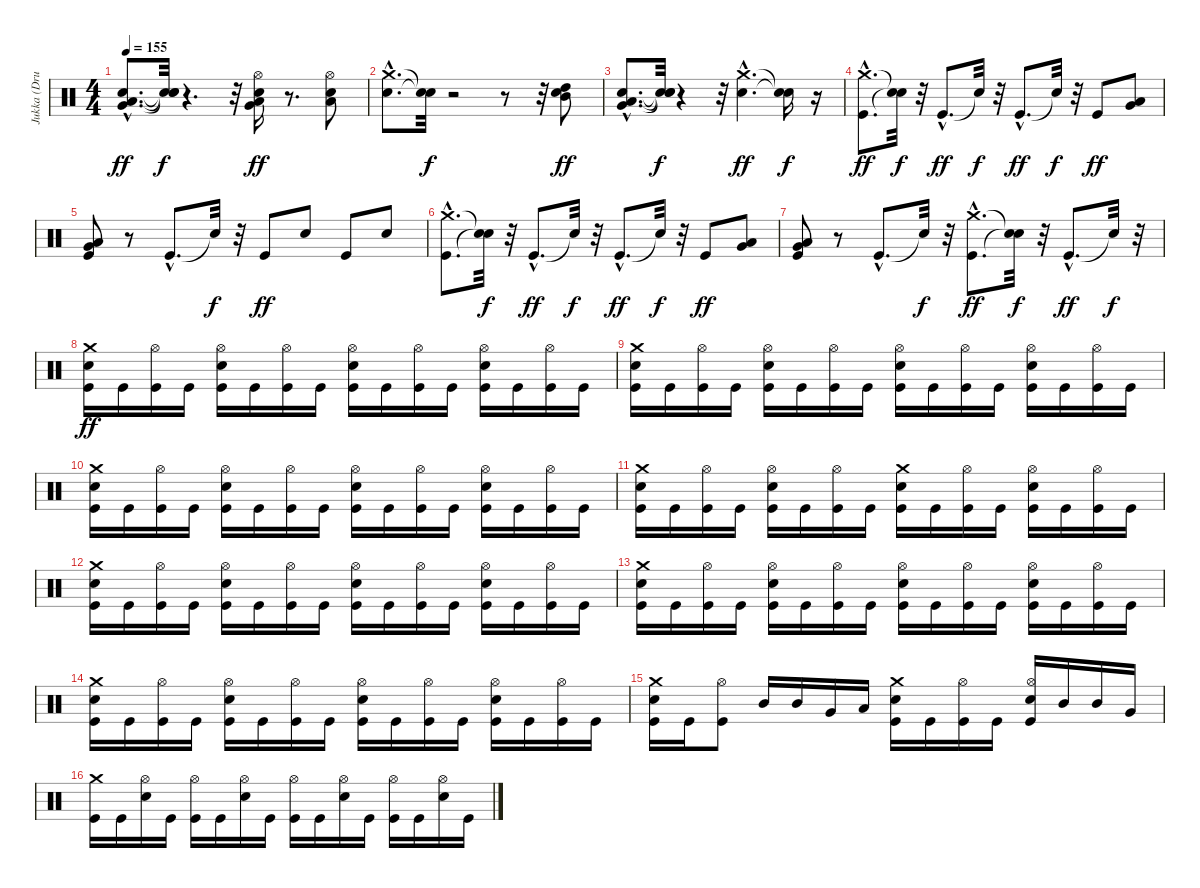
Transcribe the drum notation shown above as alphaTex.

\track ("Jukka (Drums)" "Jukka (Dru") {instrument percussion}
\staff {score}
\articulation defaults
\ts (4 4)
\tempo 155
\clef neutral
\ks c
("Electric Snare (hit)"{hac} "Low Floor Tom (hit)"{hac} "Very Low Tom (hit)"{hac}).8{d dy ff} ("Snare (hit)"{t} "Snare (hit)"{t} "Snare (hit)"{t}).32{dy f} r.4{d} r.32 ("Electric Snare (hit)" "Low Floor Tom (hit)" "Very Low Tom (hit)" "Hi-Hat (open)").16{dy ff} r.8{d} ("Electric Snare (hit)" "Low Floor Tom (hit)" "Hi-Hat (open)").8 |
("Electric Snare (hit)"{hac} "Crash medium (hit)"{hac}).8{d} ("Snare (hit)"{t} "Snare (hit)"{t}).32{dy f} r.2 r.8 r.32 ("Electric Snare (hit)" "Mid Tom (hit)" "High Tom (hit)").8{dy ff} |
("Electric Snare (hit)"{hac} "Low Floor Tom (hit)"{hac} "Very Low Tom (hit)"{hac}).8{d} ("Snare (hit)"{t} "Snare (hit)"{t} "Snare (hit)"{t}).32{dy f} r.4 r.32 ("Electric Snare (hit)"{hac} "Crash medium (hit)"{hac}).4{d dy ff} ("Snare (hit)"{t} "Snare (hit)"{t}).16{dy f} r.16 |
("Kick (hit)"{hac} "Crash medium (hit)"{hac}).8{d dy ff} ("Snare (hit)"{t} "Snare (hit)"{t}).32{dy f} r.32 "Kick (hit)"{hac}.8{d dy ff} "Snare (hit)"{t}.32{dy f} r.32 "Kick (hit)"{hac}.8{d dy ff} "Snare (hit)"{t}.32{dy f} r.32 "Kick (hit)".8{dy ff} ("Very Low Tom (hit)" "Low Tom (hit)").8 |
("Kick (hit)" "Low Floor Tom (hit)" "Very Low Tom (hit)").8 r.8 "Kick (hit)"{hac}.8{d} "Snare (hit)"{t}.32{dy f} r.32 "Kick (hit)".8{dy ff} "Electric Snare (hit)".8 "Kick (hit)".8 "Electric Snare (hit)".8 |
("Kick (hit)"{hac} "Crash medium (hit)"{hac}).8{d} ("Snare (hit)"{t} "Snare (hit)"{t}).32{dy f} r.32 "Kick (hit)"{hac}.8{d dy ff} "Snare (hit)"{t}.32{dy f} r.32 "Kick (hit)"{hac}.8{d dy ff} "Snare (hit)"{t}.32{dy f} r.32 "Kick (hit)".8{dy ff} ("Very Low Tom (hit)" "Low Tom (hit)").8 |
("Kick (hit)" "Low Floor Tom (hit)" "Very Low Tom (hit)").8 r.8 "Kick (hit)"{hac}.8{d} "Snare (hit)"{t}.32{dy f} r.32 ("Kick (hit)"{hac} "Crash medium (hit)"{hac}).8{d dy ff} ("Snare (hit)"{t} "Snare (hit)"{t}).32{dy f} r.32 "Kick (hit)"{hac}.8{d dy ff} "Snare (hit)"{t}.32{dy f} r.32 |
("Kick (hit)" "Electric Snare (hit)" "Crash medium (hit)").16{dy ff} "Kick (hit)".16 ("Kick (hit)" "Hi-Hat (open)").16 "Kick (hit)".16 ("Kick (hit)" "Electric Snare (hit)" "Hi-Hat (open)").16 "Kick (hit)".16 ("Kick (hit)" "Hi-Hat (open)").16 "Kick (hit)".16 ("Kick (hit)" "Electric Snare (hit)" "Hi-Hat (open)").16 "Kick (hit)".16 ("Kick (hit)" "Hi-Hat (open)").16 "Kick (hit)".16 ("Kick (hit)" "Electric Snare (hit)" "Hi-Hat (open)").16 "Kick (hit)".16 ("Kick (hit)" "Hi-Hat (open)").16 "Kick (hit)".16 |
("Kick (hit)" "Electric Snare (hit)" "Crash medium (hit)").16 "Kick (hit)".16 ("Kick (hit)" "Hi-Hat (open)").16 "Kick (hit)".16 ("Kick (hit)" "Electric Snare (hit)" "Hi-Hat (open)").16 "Kick (hit)".16 ("Kick (hit)" "Hi-Hat (open)").16 "Kick (hit)".16 ("Kick (hit)" "Electric Snare (hit)" "Hi-Hat (open)").16 "Kick (hit)".16 ("Kick (hit)" "Hi-Hat (open)").16 "Kick (hit)".16 ("Kick (hit)" "Electric Snare (hit)" "Hi-Hat (open)").16 "Kick (hit)".16 ("Kick (hit)" "Hi-Hat (open)").16 "Kick (hit)".16 |
("Kick (hit)" "Electric Snare (hit)" "Crash medium (hit)").16 "Kick (hit)".16 ("Kick (hit)" "Hi-Hat (open)").16 "Kick (hit)".16 ("Kick (hit)" "Electric Snare (hit)" "Hi-Hat (open)").16 "Kick (hit)".16 ("Kick (hit)" "Hi-Hat (open)").16 "Kick (hit)".16 ("Kick (hit)" "Electric Snare (hit)" "Hi-Hat (open)").16 "Kick (hit)".16 ("Kick (hit)" "Hi-Hat (open)").16 "Kick (hit)".16 ("Kick (hit)" "Electric Snare (hit)" "Hi-Hat (open)").16 "Kick (hit)".16 ("Kick (hit)" "Hi-Hat (open)").16 "Kick (hit)".16 |
("Kick (hit)" "Electric Snare (hit)" "Crash medium (hit)").16 "Kick (hit)".16 ("Kick (hit)" "Hi-Hat (open)").16 "Kick (hit)".16 ("Kick (hit)" "Electric Snare (hit)" "Hi-Hat (open)").16 "Kick (hit)".16 ("Kick (hit)" "Hi-Hat (open)").16 "Kick (hit)".16 ("Kick (hit)" "Electric Snare (hit)" "Crash medium (hit)").16 "Kick (hit)".16 ("Kick (hit)" "Hi-Hat (open)").16 "Kick (hit)".16 ("Kick (hit)" "Electric Snare (hit)" "Hi-Hat (open)").16 "Kick (hit)".16 ("Kick (hit)" "Hi-Hat (open)").16 "Kick (hit)".16 |
("Kick (hit)" "Electric Snare (hit)" "Crash medium (hit)").16 "Kick (hit)".16 ("Kick (hit)" "Hi-Hat (open)").16 "Kick (hit)".16 ("Kick (hit)" "Electric Snare (hit)" "Hi-Hat (open)").16 "Kick (hit)".16 ("Kick (hit)" "Hi-Hat (open)").16 "Kick (hit)".16 ("Kick (hit)" "Electric Snare (hit)" "Hi-Hat (open)").16 "Kick (hit)".16 ("Kick (hit)" "Hi-Hat (open)").16 "Kick (hit)".16 ("Kick (hit)" "Electric Snare (hit)" "Hi-Hat (open)").16 "Kick (hit)".16 ("Kick (hit)" "Hi-Hat (open)").16 "Kick (hit)".16 |
("Kick (hit)" "Electric Snare (hit)" "Crash medium (hit)").16 "Kick (hit)".16 ("Kick (hit)" "Hi-Hat (open)").16 "Kick (hit)".16 ("Kick (hit)" "Electric Snare (hit)" "Hi-Hat (open)").16 "Kick (hit)".16 ("Kick (hit)" "Hi-Hat (open)").16 "Kick (hit)".16 ("Kick (hit)" "Electric Snare (hit)" "Hi-Hat (open)").16 "Kick (hit)".16 ("Kick (hit)" "Hi-Hat (open)").16 "Kick (hit)".16 ("Kick (hit)" "Electric Snare (hit)" "Hi-Hat (open)").16 "Kick (hit)".16 ("Kick (hit)" "Hi-Hat (open)").16 "Kick (hit)".16 |
("Kick (hit)" "Electric Snare (hit)" "Crash medium (hit)").16 "Kick (hit)".16 ("Kick (hit)" "Hi-Hat (open)").16 "Kick (hit)".16 ("Kick (hit)" "Electric Snare (hit)" "Hi-Hat (open)").16 "Kick (hit)".16 ("Kick (hit)" "Hi-Hat (open)").16 "Kick (hit)".16 ("Kick (hit)" "Electric Snare (hit)" "Hi-Hat (open)").16 "Kick (hit)".16 ("Kick (hit)" "Hi-Hat (open)").16 "Kick (hit)".16 ("Kick (hit)" "Electric Snare (hit)" "Hi-Hat (open)").16 "Kick (hit)".16 ("Kick (hit)" "Hi-Hat (open)").16 "Kick (hit)".16 |
("Kick (hit)" "Electric Snare (hit)" "Crash medium (hit)").16 "Kick (hit)".16 ("Kick (hit)" "Hi-Hat (open)").8 "Mid Tom (hit)".16 "Mid Tom (hit)".16 "Very Low Tom (hit)".16 "Low Floor Tom (hit)".16 ("Kick (hit)" "Electric Snare (hit)" "Crash medium (hit)").16 "Kick (hit)".16 ("Kick (hit)" "Hi-Hat (open)").16 "Kick (hit)".16 ("Kick (hit)" "Electric Snare (hit)" "Hi-Hat (open)").16 "Mid Tom (hit)".16 "Mid Tom (hit)".16 "Very Low Tom (hit)".16 |
("Kick (hit)" "Crash medium (hit)").16 "Kick (hit)".16 ("Electric Snare (hit)" "Hi-Hat (open)").16 "Kick (hit)".16 ("Kick (hit)" "Hi-Hat (open)").16 "Kick (hit)".16 ("Electric Snare (hit)" "Hi-Hat (open)").16 "Kick (hit)".16 ("Kick (hit)" "Hi-Hat (open)").16 "Kick (hit)".16 ("Electric Snare (hit)" "Hi-Hat (open)").16 "Kick (hit)".16 ("Kick (hit)" "Hi-Hat (open)").16 "Kick (hit)".16 ("Electric Snare (hit)" "Hi-Hat (open)").16 "Kick (hit)".16
